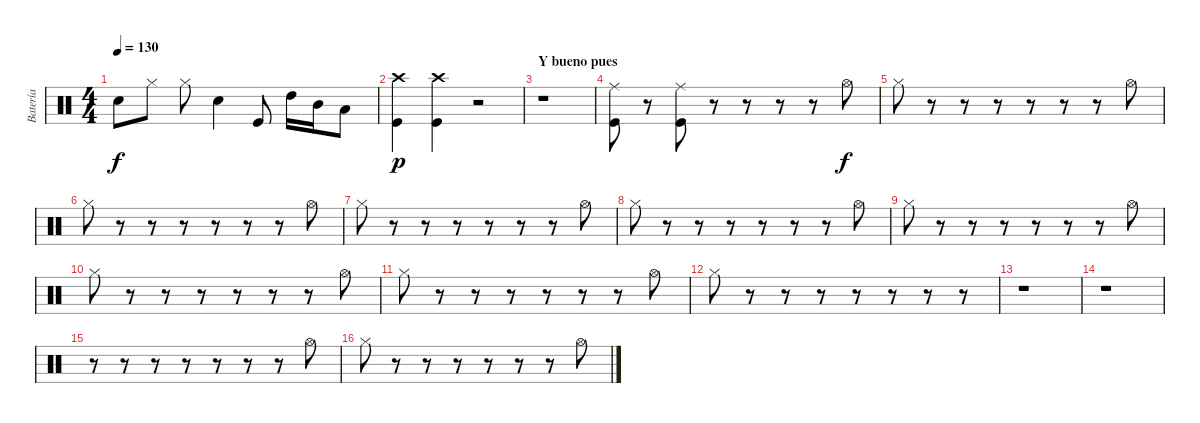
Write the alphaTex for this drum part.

\track ("Batería" "Batería") {instrument percussion}
\staff {score}
\articulation defaults
\ts (4 4)
\tempo 130
\clef neutral
\ks c "Snare (hit) 2".8{dy f} "Hi-Hat (closed)".8 "Hi-Hat (closed)".8 "Snare (hit) 2".4 "Kick (hit)".8 "High Tom (hit)".16 "Mid Tom (hit)".16 "Low Tom (hit)".8
|
("Crash high (hit)" "Kick (hit)").4{dy p} ("Crash high (hit)" "Kick (hit)").4 r.2 |
\section ("" "Y bueno pues")
r.1 |
("Ride (middle)" "Kick (hit)").8 r.8 ("Ride (middle)" "Kick (hit)").8 r.8 r.8 r.8 r.8 "Hi-Hat (open)".8{dy f} |
"Hi-Hat (closed)".8 r.8 r.8 r.8 r.8 r.8 r.8 "Hi-Hat (open)".8 |
"Hi-Hat (closed)".8 r.8 r.8 r.8 r.8 r.8 r.8 "Hi-Hat (open)".8 |
"Hi-Hat (closed)".8 r.8 r.8 r.8 r.8 r.8 r.8 "Hi-Hat (open)".8 |
"Hi-Hat (closed)".8 r.8 r.8 r.8 r.8 r.8 r.8 "Hi-Hat (open)".8 |
"Hi-Hat (closed)".8 r.8 r.8 r.8 r.8 r.8 r.8 "Hi-Hat (open)".8 |
"Hi-Hat (closed)".8 r.8 r.8 r.8 r.8 r.8 r.8 "Hi-Hat (open)".8 |
"Hi-Hat (closed)".8 r.8 r.8 r.8 r.8 r.8 r.8 "Hi-Hat (open)".8 |
"Hi-Hat (closed)".8 r.8 r.8 r.8 r.8 r.8 r.8 r.8 |
r.1 |
r.1 |
r.8 r.8 r.8 r.8 r.8 r.8 r.8 "Hi-Hat (open)".8 |
"Hi-Hat (closed)".8 r.8 r.8 r.8 r.8 r.8 r.8 "Hi-Hat (open)".8
